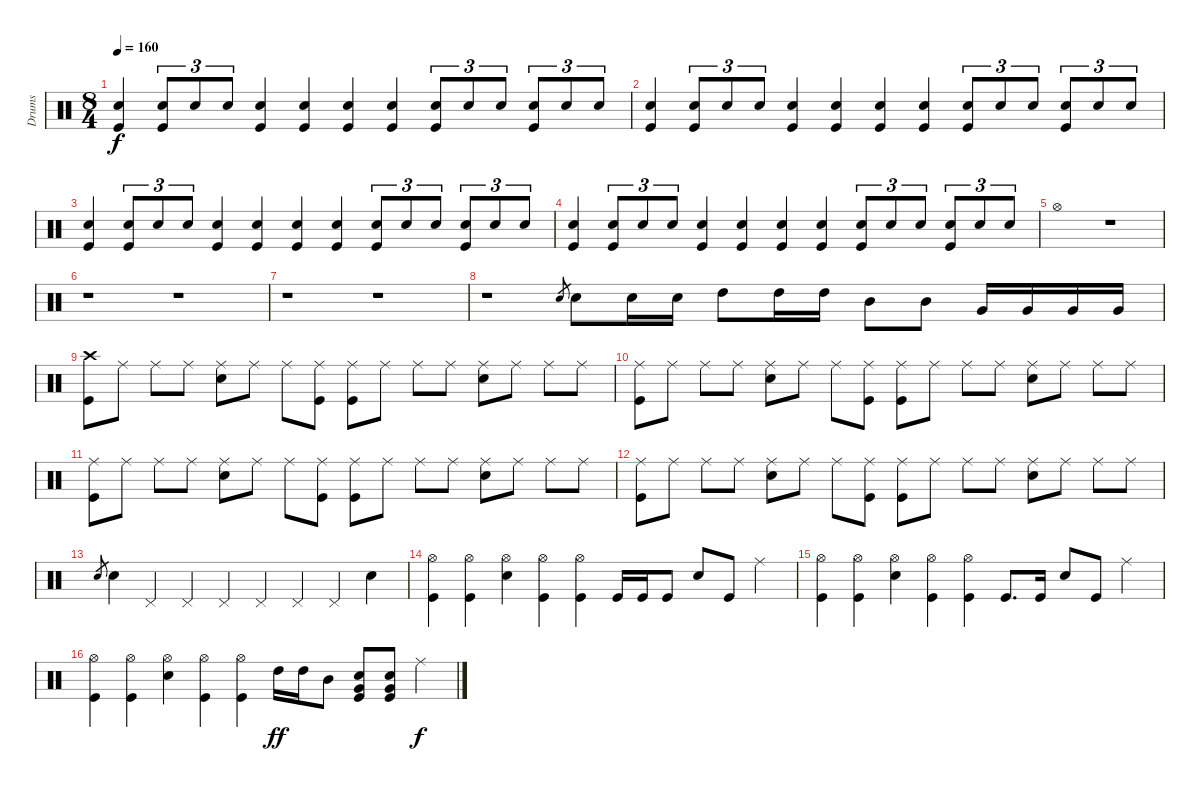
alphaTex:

\track ("Drums" "Drums") {instrument percussion}
\staff {score}
\articulation defaults
\ts (8 4)
\tempo 160
\clef neutral
\ks c
("Snare (hit) 2" "Kick (hit)").4{dy f} ("Snare (hit) 2" "Kick (hit)").8{tu (3 2)} "Snare (hit) 2".8{tu (3 2)} "Snare (hit) 2".8{tu (3 2)} ("Snare (hit) 2" "Kick (hit)").4 ("Snare (hit) 2" "Kick (hit)").4 ("Snare (hit) 2" "Kick (hit)").4 ("Snare (hit) 2" "Kick (hit)").4 ("Snare (hit) 2" "Kick (hit)").8{tu (3 2)} "Snare (hit) 2".8{tu (3 2)} "Snare (hit) 2".8{tu (3 2)} ("Snare (hit) 2" "Kick (hit)").8{tu (3 2)} "Snare (hit) 2".8{tu (3 2)} "Snare (hit) 2".8{tu (3 2)} |
("Snare (hit) 2" "Kick (hit)").4 ("Snare (hit) 2" "Kick (hit)").8{tu (3 2)} "Snare (hit) 2".8{tu (3 2)} "Snare (hit) 2".8{tu (3 2)} ("Snare (hit) 2" "Kick (hit)").4 ("Snare (hit) 2" "Kick (hit)").4 ("Snare (hit) 2" "Kick (hit)").4 ("Snare (hit) 2" "Kick (hit)").4 ("Snare (hit) 2" "Kick (hit)").8{tu (3 2)} "Snare (hit) 2".8{tu (3 2)} "Snare (hit) 2".8{tu (3 2)} ("Snare (hit) 2" "Kick (hit)").8{tu (3 2)} "Snare (hit) 2".8{tu (3 2)} "Snare (hit) 2".8{tu (3 2)} |
("Snare (hit) 2" "Kick (hit)").4 ("Snare (hit) 2" "Kick (hit)").8{tu (3 2)} "Snare (hit) 2".8{tu (3 2)} "Snare (hit) 2".8{tu (3 2)} ("Snare (hit) 2" "Kick (hit)").4 ("Snare (hit) 2" "Kick (hit)").4 ("Snare (hit) 2" "Kick (hit)").4 ("Snare (hit) 2" "Kick (hit)").4 ("Snare (hit) 2" "Kick (hit)").8{tu (3 2)} "Snare (hit) 2".8{tu (3 2)} "Snare (hit) 2".8{tu (3 2)} ("Snare (hit) 2" "Kick (hit)").8{tu (3 2)} "Snare (hit) 2".8{tu (3 2)} "Snare (hit) 2".8{tu (3 2)} |
("Snare (hit) 2" "Kick (hit)").4 ("Snare (hit) 2" "Kick (hit)").8{tu (3 2)} "Snare (hit) 2".8{tu (3 2)} "Snare (hit) 2".8{tu (3 2)} ("Snare (hit) 2" "Kick (hit)").4 ("Snare (hit) 2" "Kick (hit)").4 ("Snare (hit) 2" "Kick (hit)").4 ("Snare (hit) 2" "Kick (hit)").4 ("Snare (hit) 2" "Kick (hit)").8{tu (3 2)} "Snare (hit) 2".8{tu (3 2)} "Snare (hit) 2".8{tu (3 2)} ("Snare (hit) 2" "Kick (hit)").8{tu (3 2)} "Snare (hit) 2".8{tu (3 2)} "Snare (hit) 2".8{tu (3 2)} |
"Hi-Hat (open)".1 r.1 |
r.1 r.1 |
r.1 r.1 |
r.1 "Snare (hit) 2".8{gr} "Snare (hit) 2".8 "Snare (hit) 2".16 "Snare (hit) 2".16 "High Tom (hit)".8 "High Tom (hit)".16 "High Tom (hit)".16 "Mid Tom (hit)".8 "Mid Tom (hit)".8 "Very Low Tom (hit)".16 "Very Low Tom (hit)".16 "Very Low Tom (hit)".16 "Very Low Tom (hit)".16 |
("Kick (hit)" "Crash high (hit)").8 "Ride (middle)".8 "Ride (middle)".8 "Ride (middle)".8 ("Snare (hit) 2" "Ride (middle)").8 "Ride (middle)".8 "Ride (middle)".8 ("Ride (middle)" "Kick (hit)").8 ("Kick (hit)" "Ride (middle)").8 "Ride (middle)".8 "Ride (middle)".8 "Ride (middle)".8 ("Snare (hit) 2" "Ride (middle)").8 "Ride (middle)".8 "Ride (middle)".8 "Ride (middle)".8 |
("Kick (hit)" "Ride (middle)").8 "Ride (middle)".8 "Ride (middle)".8 "Ride (middle)".8 ("Snare (hit) 2" "Ride (middle)").8 "Ride (middle)".8 "Ride (middle)".8 ("Ride (middle)" "Kick (hit)").8 ("Kick (hit)" "Ride (middle)").8 "Ride (middle)".8 "Ride (middle)".8 "Ride (middle)".8 ("Snare (hit) 2" "Ride (middle)").8 "Ride (middle)".8 "Ride (middle)".8 "Ride (middle)".8 |
("Kick (hit)" "Ride (middle)").8 "Ride (middle)".8 "Ride (middle)".8 "Ride (middle)".8 ("Snare (hit) 2" "Ride (middle)").8 "Ride (middle)".8 "Ride (middle)".8 ("Ride (middle)" "Kick (hit)").8 ("Kick (hit)" "Ride (middle)").8 "Ride (middle)".8 "Ride (middle)".8 "Ride (middle)".8 ("Snare (hit) 2" "Ride (middle)").8 "Ride (middle)".8 "Ride (middle)".8 "Ride (middle)".8 |
("Kick (hit)" "Ride (middle)").8 "Ride (middle)".8 "Ride (middle)".8 "Ride (middle)".8 ("Snare (hit) 2" "Ride (middle)").8 "Ride (middle)".8 "Ride (middle)".8 ("Ride (middle)" "Kick (hit)").8 ("Kick (hit)" "Ride (middle)").8 "Ride (middle)".8 "Ride (middle)".8 "Ride (middle)".8 ("Snare (hit) 2" "Ride (middle)").8 "Ride (middle)".8 "Ride (middle)".8 "Ride (middle)".8 |
"Snare (hit) 2".8{gr} "Snare (hit) 2".4 "Pedal Hi-Hat (hit)".4 "Pedal Hi-Hat (hit)".4 "Pedal Hi-Hat (hit)".4 "Pedal Hi-Hat (hit)".4 "Pedal Hi-Hat (hit)".4 "Pedal Hi-Hat (hit)".4 "Snare (hit) 2".4 |
("Hi-Hat (open)" "Kick (hit)").4 ("Hi-Hat (open)" "Kick (hit)").4 ("Hi-Hat (open)" "Snare (hit) 2").4 ("Hi-Hat (open)" "Kick (hit)").4 ("Hi-Hat (open)" "Kick (hit)").4 "Kick (hit)".16 "Kick (hit)".16 "Kick (hit)".8 "Snare (hit) 2".8 "Kick (hit)".8 "Ride (middle)".4 |
("Hi-Hat (open)" "Kick (hit)").4 ("Hi-Hat (open)" "Kick (hit)").4 ("Hi-Hat (open)" "Snare (hit) 2").4 ("Hi-Hat (open)" "Kick (hit)").4 ("Hi-Hat (open)" "Kick (hit)").4 "Kick (hit)".8{d} "Kick (hit)".16 "Snare (hit) 2".8 "Kick (hit)".8 "Ride (middle)".4 |
("Hi-Hat (open)" "Kick (hit)").4 ("Hi-Hat (open)" "Kick (hit)").4 ("Hi-Hat (open)" "Snare (hit) 2").4 ("Hi-Hat (open)" "Kick (hit)").4 ("Hi-Hat (open)" "Kick (hit)").4 "High Tom (hit)".16{dy ff} "High Tom (hit)".16 "Mid Tom (hit)".8 ("Snare (hit) 2" "Very Low Tom (hit)" "Kick (hit)").8 ("Very Low Tom (hit)" "Kick (hit)" "Snare (hit) 2").8 "Ride (middle)".4{dy f}
